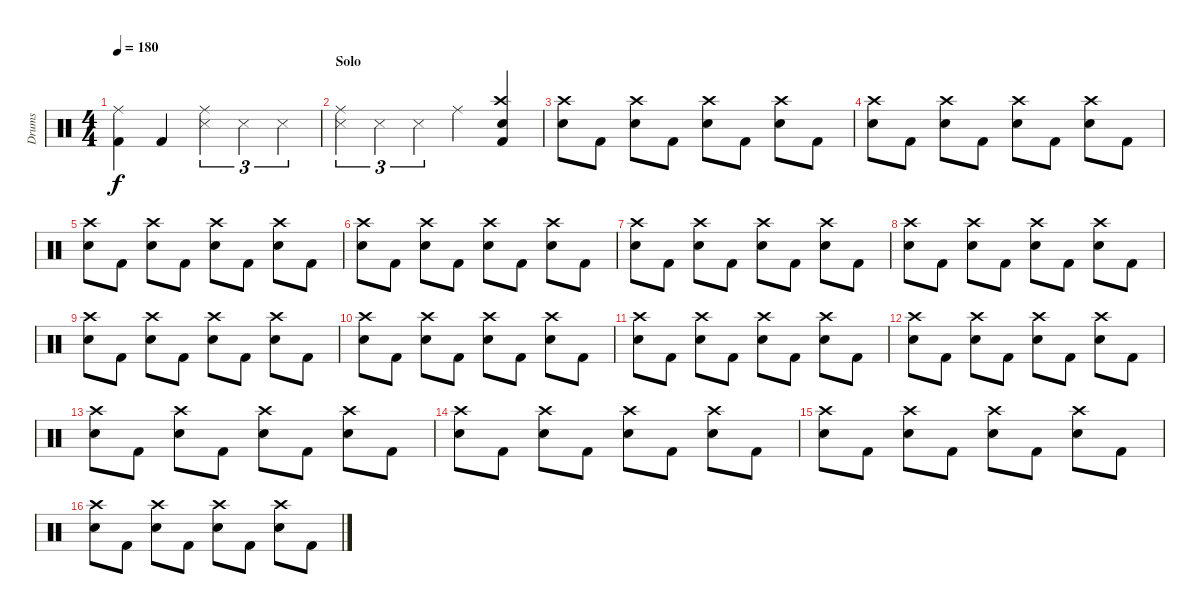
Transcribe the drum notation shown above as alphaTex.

\track ("Drums" "Drums") {instrument percussion}
\staff {score}
\articulation defaults
\ts (4 4)
\tempo 180
\clef neutral
\ks c
("Ride (middle)" "Kick (hit) 2").4{dy f} "Kick (hit) 2".4 ("Ride (middle)" "Snare (side stick) 3").4{tu (3 2)} "Snare (side stick) 3".4{tu (3 2)} "Snare (side stick) 3".4{tu (3 2)} |
\section ("" "Solo")
("Ride (middle)" "Snare (side stick) 3").4{tu (3 2)} "Snare (side stick) 3".4{tu (3 2)} "Snare (side stick) 3".4{tu (3 2)} "Ride (middle)".4 ("Crash high (hit)" "Snare (hit) 2" "Kick (hit) 2").4 |
("Crash high (hit)" "Snare (hit) 2").8 "Kick (hit) 2".8 ("Crash high (hit)" "Snare (hit) 2").8 "Kick (hit) 2".8 ("Crash high (hit)" "Snare (hit) 2").8 "Kick (hit) 2".8 ("Crash high (hit)" "Snare (hit) 2").8 "Kick (hit) 2".8 |
("Crash high (hit)" "Snare (hit) 2").8 "Kick (hit) 2".8 ("Crash high (hit)" "Snare (hit) 2").8 "Kick (hit) 2".8 ("Crash high (hit)" "Snare (hit) 2").8 "Kick (hit) 2".8 ("Crash high (hit)" "Snare (hit) 2").8 "Kick (hit) 2".8 |
("Crash high (hit)" "Snare (hit) 2").8 "Kick (hit) 2".8 ("Crash high (hit)" "Snare (hit) 2").8 "Kick (hit) 2".8 ("Crash high (hit)" "Snare (hit) 2").8 "Kick (hit) 2".8 ("Crash high (hit)" "Snare (hit) 2").8 "Kick (hit) 2".8 |
("Crash high (hit)" "Snare (hit) 2").8 "Kick (hit) 2".8 ("Crash high (hit)" "Snare (hit) 2").8 "Kick (hit) 2".8 ("Crash high (hit)" "Snare (hit) 2").8 "Kick (hit) 2".8 ("Crash high (hit)" "Snare (hit) 2").8 "Kick (hit) 2".8 |
("Crash high (hit)" "Snare (hit) 2").8 "Kick (hit) 2".8 ("Crash high (hit)" "Snare (hit) 2").8 "Kick (hit) 2".8 ("Crash high (hit)" "Snare (hit) 2").8 "Kick (hit) 2".8 ("Crash high (hit)" "Snare (hit) 2").8 "Kick (hit) 2".8 |
("Crash high (hit)" "Snare (hit) 2").8 "Kick (hit) 2".8 ("Crash high (hit)" "Snare (hit) 2").8 "Kick (hit) 2".8 ("Crash high (hit)" "Snare (hit) 2").8 "Kick (hit) 2".8 ("Crash high (hit)" "Snare (hit) 2").8 "Kick (hit) 2".8 |
("Crash high (hit)" "Snare (hit) 2").8 "Kick (hit) 2".8 ("Crash high (hit)" "Snare (hit) 2").8 "Kick (hit) 2".8 ("Crash high (hit)" "Snare (hit) 2").8 "Kick (hit) 2".8 ("Crash high (hit)" "Snare (hit) 2").8 "Kick (hit) 2".8 |
("Crash high (hit)" "Snare (hit) 2").8 "Kick (hit) 2".8 ("Crash high (hit)" "Snare (hit) 2").8 "Kick (hit) 2".8 ("Crash high (hit)" "Snare (hit) 2").8 "Kick (hit) 2".8 ("Crash high (hit)" "Snare (hit) 2").8 "Kick (hit) 2".8 |
("Crash high (hit)" "Snare (hit) 2").8 "Kick (hit) 2".8 ("Crash high (hit)" "Snare (hit) 2").8 "Kick (hit) 2".8 ("Crash high (hit)" "Snare (hit) 2").8 "Kick (hit) 2".8 ("Crash high (hit)" "Snare (hit) 2").8 "Kick (hit) 2".8 |
("Crash high (hit)" "Snare (hit) 2").8 "Kick (hit) 2".8 ("Crash high (hit)" "Snare (hit) 2").8 "Kick (hit) 2".8 ("Crash high (hit)" "Snare (hit) 2").8 "Kick (hit) 2".8 ("Crash high (hit)" "Snare (hit) 2").8 "Kick (hit) 2".8 |
("Crash high (hit)" "Snare (hit) 2").8 "Kick (hit) 2".8 ("Crash high (hit)" "Snare (hit) 2").8 "Kick (hit) 2".8 ("Crash high (hit)" "Snare (hit) 2").8 "Kick (hit) 2".8 ("Crash high (hit)" "Snare (hit) 2").8 "Kick (hit) 2".8 |
("Crash high (hit)" "Snare (hit) 2").8 "Kick (hit) 2".8 ("Crash high (hit)" "Snare (hit) 2").8 "Kick (hit) 2".8 ("Crash high (hit)" "Snare (hit) 2").8 "Kick (hit) 2".8 ("Crash high (hit)" "Snare (hit) 2").8 "Kick (hit) 2".8 |
("Crash high (hit)" "Snare (hit) 2").8 "Kick (hit) 2".8 ("Crash high (hit)" "Snare (hit) 2").8 "Kick (hit) 2".8 ("Crash high (hit)" "Snare (hit) 2").8 "Kick (hit) 2".8 ("Crash high (hit)" "Snare (hit) 2").8 "Kick (hit) 2".8 |
("Crash high (hit)" "Snare (hit) 2").8 "Kick (hit) 2".8 ("Crash high (hit)" "Snare (hit) 2").8 "Kick (hit) 2".8 ("Crash high (hit)" "Snare (hit) 2").8 "Kick (hit) 2".8 ("Crash high (hit)" "Snare (hit) 2").8 "Kick (hit) 2".8
